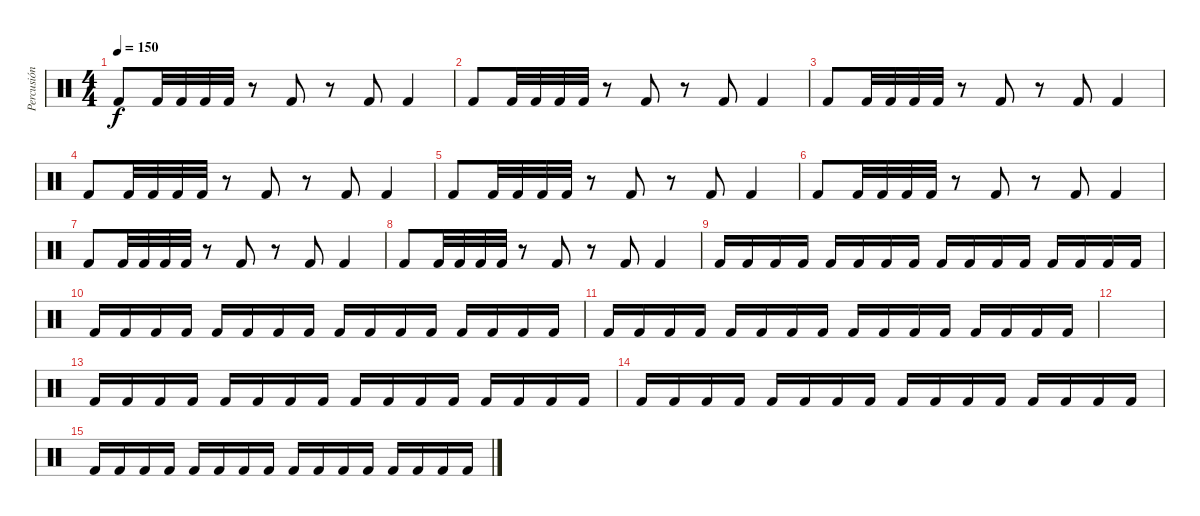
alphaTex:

\track ("Percusión" "Percusión") {instrument percussion}
\staff {score}
\articulation defaults
\ts (4 4)
\tempo 150
\clef neutral
\ks c "Kick (hit) 2".8{dy f} "Kick (hit) 2".32 "Kick (hit) 2".32 "Kick (hit) 2".32 "Kick (hit) 2".32
r.8 "Kick (hit) 2".8 r.8 "Kick (hit) 2".8 "Kick (hit) 2".4 |
"Kick (hit) 2".8 "Kick (hit) 2".32 "Kick (hit) 2".32 "Kick (hit) 2".32 "Kick (hit) 2".32 r.8 "Kick (hit) 2".8 r.8 "Kick (hit) 2".8 "Kick (hit) 2".4 |
"Kick (hit) 2".8 "Kick (hit) 2".32 "Kick (hit) 2".32 "Kick (hit) 2".32 "Kick (hit) 2".32 r.8 "Kick (hit) 2".8 r.8 "Kick (hit) 2".8 "Kick (hit) 2".4 |
"Kick (hit) 2".8 "Kick (hit) 2".32 "Kick (hit) 2".32 "Kick (hit) 2".32 "Kick (hit) 2".32 r.8 "Kick (hit) 2".8 r.8 "Kick (hit) 2".8 "Kick (hit) 2".4 |
"Kick (hit) 2".8 "Kick (hit) 2".32 "Kick (hit) 2".32 "Kick (hit) 2".32 "Kick (hit) 2".32 r.8 "Kick (hit) 2".8 r.8 "Kick (hit) 2".8 "Kick (hit) 2".4 |
"Kick (hit) 2".8 "Kick (hit) 2".32 "Kick (hit) 2".32 "Kick (hit) 2".32 "Kick (hit) 2".32 r.8 "Kick (hit) 2".8 r.8 "Kick (hit) 2".8 "Kick (hit) 2".4 |
"Kick (hit) 2".8 "Kick (hit) 2".32 "Kick (hit) 2".32 "Kick (hit) 2".32 "Kick (hit) 2".32 r.8 "Kick (hit) 2".8 r.8 "Kick (hit) 2".8 "Kick (hit) 2".4 |
"Kick (hit) 2".8 "Kick (hit) 2".32 "Kick (hit) 2".32 "Kick (hit) 2".32 "Kick (hit) 2".32 r.8 "Kick (hit) 2".8 r.8 "Kick (hit) 2".8 "Kick (hit) 2".4 |
"Kick (hit) 2".16 "Kick (hit) 2".16 "Kick (hit) 2".16 "Kick (hit) 2".16 "Kick (hit) 2".16 "Kick (hit) 2".16 "Kick (hit) 2".16 "Kick (hit) 2".16 "Kick (hit) 2".16 "Kick (hit) 2".16 "Kick (hit) 2".16 "Kick (hit) 2".16 "Kick (hit) 2".16 "Kick (hit) 2".16 "Kick (hit) 2".16 "Kick (hit) 2".16 |
"Kick (hit) 2".16 "Kick (hit) 2".16 "Kick (hit) 2".16 "Kick (hit) 2".16 "Kick (hit) 2".16 "Kick (hit) 2".16 "Kick (hit) 2".16 "Kick (hit) 2".16 "Kick (hit) 2".16 "Kick (hit) 2".16 "Kick (hit) 2".16 "Kick (hit) 2".16 "Kick (hit) 2".16 "Kick (hit) 2".16 "Kick (hit) 2".16 "Kick (hit) 2".16 |
"Kick (hit) 2".16 "Kick (hit) 2".16 "Kick (hit) 2".16 "Kick (hit) 2".16 "Kick (hit) 2".16 "Kick (hit) 2".16 "Kick (hit) 2".16 "Kick (hit) 2".16 "Kick (hit) 2".16 "Kick (hit) 2".16 "Kick (hit) 2".16 "Kick (hit) 2".16 "Kick (hit) 2".16 "Kick (hit) 2".16 "Kick (hit) 2".16 "Kick (hit) 2".16 |
|
"Kick (hit) 2".16 "Kick (hit) 2".16 "Kick (hit) 2".16 "Kick (hit) 2".16 "Kick (hit) 2".16 "Kick (hit) 2".16 "Kick (hit) 2".16 "Kick (hit) 2".16 "Kick (hit) 2".16 "Kick (hit) 2".16 "Kick (hit) 2".16 "Kick (hit) 2".16 "Kick (hit) 2".16 "Kick (hit) 2".16 "Kick (hit) 2".16 "Kick (hit) 2".16 |
"Kick (hit) 2".16 "Kick (hit) 2".16 "Kick (hit) 2".16 "Kick (hit) 2".16 "Kick (hit) 2".16 "Kick (hit) 2".16 "Kick (hit) 2".16 "Kick (hit) 2".16 "Kick (hit) 2".16 "Kick (hit) 2".16 "Kick (hit) 2".16 "Kick (hit) 2".16 "Kick (hit) 2".16 "Kick (hit) 2".16 "Kick (hit) 2".16 "Kick (hit) 2".16 |
"Kick (hit) 2".16 "Kick (hit) 2".16 "Kick (hit) 2".16 "Kick (hit) 2".16 "Kick (hit) 2".16 "Kick (hit) 2".16 "Kick (hit) 2".16 "Kick (hit) 2".16 "Kick (hit) 2".16 "Kick (hit) 2".16 "Kick (hit) 2".16 "Kick (hit) 2".16 "Kick (hit) 2".16 "Kick (hit) 2".16 "Kick (hit) 2".16 "Kick (hit) 2".16
